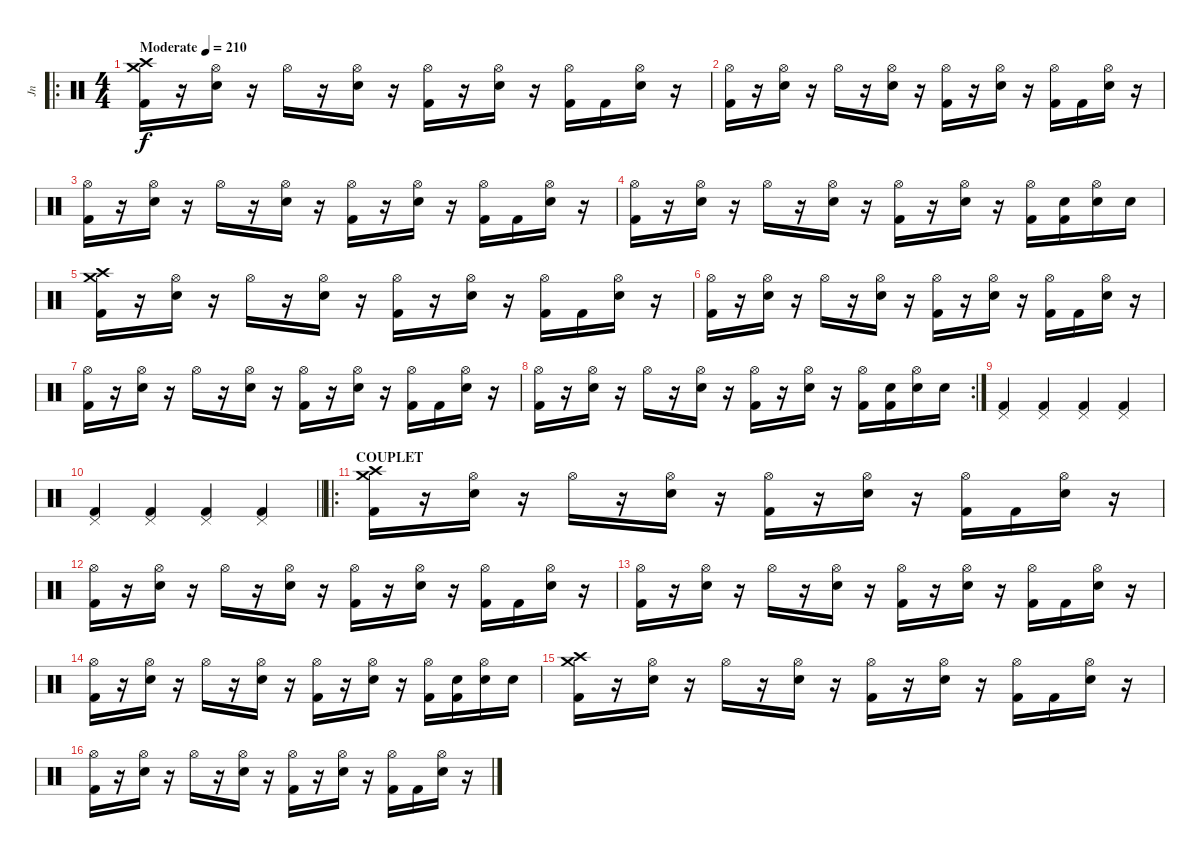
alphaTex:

\track ("Jn" "Jn") {instrument percussion}
\staff {score}
\articulation defaults
\ro
\ts (4 4)
\tempo (210 "Moderate")
\clef neutral
\ks c
("Crash medium (hit)" "Crash high (hit)" "Kick (hit) 2").16{dy f} r.16 ("Hi-Hat (open)" "Electric Snare (hit)").16 r.16 "Hi-Hat (open)".16 r.16 ("Hi-Hat (open)" "Electric Snare (hit)").16 r.16 ("Hi-Hat (open)" "Kick (hit) 2").16 r.16 ("Hi-Hat (open)" "Electric Snare (hit)").16 r.16 ("Hi-Hat (open)" "Kick (hit) 2").16 "Kick (hit) 2".16 ("Hi-Hat (open)" "Electric Snare (hit)").16 r.16 |
("Hi-Hat (open)" "Kick (hit) 2").16 r.16 ("Hi-Hat (open)" "Electric Snare (hit)").16 r.16 "Hi-Hat (open)".16 r.16 ("Hi-Hat (open)" "Electric Snare (hit)").16 r.16 ("Hi-Hat (open)" "Kick (hit) 2").16 r.16 ("Hi-Hat (open)" "Electric Snare (hit)").16 r.16 ("Hi-Hat (open)" "Kick (hit) 2").16 "Kick (hit) 2".16 ("Hi-Hat (open)" "Electric Snare (hit)").16 r.16 |
("Hi-Hat (open)" "Kick (hit) 2").16 r.16 ("Hi-Hat (open)" "Electric Snare (hit)").16 r.16 "Hi-Hat (open)".16 r.16 ("Hi-Hat (open)" "Electric Snare (hit)").16 r.16 ("Hi-Hat (open)" "Kick (hit) 2").16 r.16 ("Hi-Hat (open)" "Electric Snare (hit)").16 r.16 ("Hi-Hat (open)" "Kick (hit) 2").16 "Kick (hit) 2".16 ("Hi-Hat (open)" "Electric Snare (hit)").16 r.16 |
("Hi-Hat (open)" "Kick (hit) 2").16 r.16 ("Hi-Hat (open)" "Electric Snare (hit)").16 r.16 "Hi-Hat (open)".16 r.16 ("Hi-Hat (open)" "Electric Snare (hit)").16 r.16 ("Hi-Hat (open)" "Kick (hit) 2").16 r.16 ("Hi-Hat (open)" "Electric Snare (hit)").16 r.16 ("Hi-Hat (open)" "Kick (hit) 2").16 ("Electric Snare (hit)" "Kick (hit) 2").16 ("Hi-Hat (open)" "Electric Snare (hit)").16 "Electric Snare (hit)".16 |
("Crash medium (hit)" "Crash high (hit)" "Kick (hit) 2").16 r.16 ("Hi-Hat (open)" "Electric Snare (hit)").16 r.16 "Hi-Hat (open)".16 r.16 ("Hi-Hat (open)" "Electric Snare (hit)").16 r.16 ("Hi-Hat (open)" "Kick (hit) 2").16 r.16 ("Hi-Hat (open)" "Electric Snare (hit)").16 r.16 ("Hi-Hat (open)" "Kick (hit) 2").16 "Kick (hit) 2".16 ("Hi-Hat (open)" "Electric Snare (hit)").16 r.16 |
("Hi-Hat (open)" "Kick (hit) 2").16 r.16 ("Hi-Hat (open)" "Electric Snare (hit)").16 r.16 "Hi-Hat (open)".16 r.16 ("Hi-Hat (open)" "Electric Snare (hit)").16 r.16 ("Hi-Hat (open)" "Kick (hit) 2").16 r.16 ("Hi-Hat (open)" "Electric Snare (hit)").16 r.16 ("Hi-Hat (open)" "Kick (hit) 2").16 "Kick (hit) 2".16 ("Hi-Hat (open)" "Electric Snare (hit)").16 r.16 |
("Hi-Hat (open)" "Kick (hit) 2").16 r.16 ("Hi-Hat (open)" "Electric Snare (hit)").16 r.16 "Hi-Hat (open)".16 r.16 ("Hi-Hat (open)" "Electric Snare (hit)").16 r.16 ("Hi-Hat (open)" "Kick (hit) 2").16 r.16 ("Hi-Hat (open)" "Electric Snare (hit)").16 r.16 ("Hi-Hat (open)" "Kick (hit) 2").16 "Kick (hit) 2".16 ("Hi-Hat (open)" "Electric Snare (hit)").16 r.16 |
\rc 2
("Hi-Hat (open)" "Kick (hit) 2").16 r.16 ("Hi-Hat (open)" "Electric Snare (hit)").16 r.16 "Hi-Hat (open)".16 r.16 ("Hi-Hat (open)" "Electric Snare (hit)").16 r.16 ("Hi-Hat (open)" "Kick (hit) 2").16 r.16 ("Hi-Hat (open)" "Electric Snare (hit)").16 r.16 ("Hi-Hat (open)" "Kick (hit) 2").16 ("Electric Snare (hit)" "Kick (hit) 2").16 ("Hi-Hat (open)" "Electric Snare (hit)").16 "Electric Snare (hit)".16 |
("Pedal Hi-Hat (hit)" "Kick (hit) 2").4 ("Pedal Hi-Hat (hit)" "Kick (hit) 2").4 ("Pedal Hi-Hat (hit)" "Kick (hit) 2").4 ("Pedal Hi-Hat (hit)" "Kick (hit) 2").4 |
\barLineRight lightlight
("Pedal Hi-Hat (hit)" "Kick (hit) 2").4 ("Pedal Hi-Hat (hit)" "Kick (hit) 2").4 ("Pedal Hi-Hat (hit)" "Kick (hit) 2").4 ("Pedal Hi-Hat (hit)" "Kick (hit) 2").4 |
\ro
\section ("" "COUPLET")
("Crash medium (hit)" "Crash high (hit)" "Kick (hit) 2").16 r.16 ("Hi-Hat (open)" "Electric Snare (hit)").16 r.16 "Hi-Hat (open)".16 r.16 ("Hi-Hat (open)" "Electric Snare (hit)").16 r.16 ("Hi-Hat (open)" "Kick (hit) 2").16 r.16 ("Hi-Hat (open)" "Electric Snare (hit)").16 r.16 ("Hi-Hat (open)" "Kick (hit) 2").16 "Kick (hit) 2".16 ("Hi-Hat (open)" "Electric Snare (hit)").16 r.16 |
("Hi-Hat (open)" "Kick (hit) 2").16 r.16 ("Hi-Hat (open)" "Electric Snare (hit)").16 r.16 "Hi-Hat (open)".16 r.16 ("Hi-Hat (open)" "Electric Snare (hit)").16 r.16 ("Hi-Hat (open)" "Kick (hit) 2").16 r.16 ("Hi-Hat (open)" "Electric Snare (hit)").16 r.16 ("Hi-Hat (open)" "Kick (hit) 2").16 "Kick (hit) 2".16 ("Hi-Hat (open)" "Electric Snare (hit)").16 r.16 |
("Hi-Hat (open)" "Kick (hit) 2").16 r.16 ("Hi-Hat (open)" "Electric Snare (hit)").16 r.16 "Hi-Hat (open)".16 r.16 ("Hi-Hat (open)" "Electric Snare (hit)").16 r.16 ("Hi-Hat (open)" "Kick (hit) 2").16 r.16 ("Hi-Hat (open)" "Electric Snare (hit)").16 r.16 ("Hi-Hat (open)" "Kick (hit) 2").16 "Kick (hit) 2".16 ("Hi-Hat (open)" "Electric Snare (hit)").16 r.16 |
("Hi-Hat (open)" "Kick (hit) 2").16 r.16 ("Hi-Hat (open)" "Electric Snare (hit)").16 r.16 "Hi-Hat (open)".16 r.16 ("Hi-Hat (open)" "Electric Snare (hit)").16 r.16 ("Hi-Hat (open)" "Kick (hit) 2").16 r.16 ("Hi-Hat (open)" "Electric Snare (hit)").16 r.16 ("Hi-Hat (open)" "Kick (hit) 2").16 ("Electric Snare (hit)" "Kick (hit) 2").16 ("Hi-Hat (open)" "Electric Snare (hit)").16 "Electric Snare (hit)".16 |
("Crash medium (hit)" "Crash high (hit)" "Kick (hit) 2").16 r.16 ("Hi-Hat (open)" "Electric Snare (hit)").16 r.16 "Hi-Hat (open)".16 r.16 ("Hi-Hat (open)" "Electric Snare (hit)").16 r.16 ("Hi-Hat (open)" "Kick (hit) 2").16 r.16 ("Hi-Hat (open)" "Electric Snare (hit)").16 r.16 ("Hi-Hat (open)" "Kick (hit) 2").16 "Kick (hit) 2".16 ("Hi-Hat (open)" "Electric Snare (hit)").16 r.16 |
("Hi-Hat (open)" "Kick (hit) 2").16 r.16 ("Hi-Hat (open)" "Electric Snare (hit)").16 r.16 "Hi-Hat (open)".16 r.16 ("Hi-Hat (open)" "Electric Snare (hit)").16 r.16 ("Hi-Hat (open)" "Kick (hit) 2").16 r.16 ("Hi-Hat (open)" "Electric Snare (hit)").16 r.16 ("Hi-Hat (open)" "Kick (hit) 2").16 "Kick (hit) 2".16 ("Hi-Hat (open)" "Electric Snare (hit)").16 r.16
